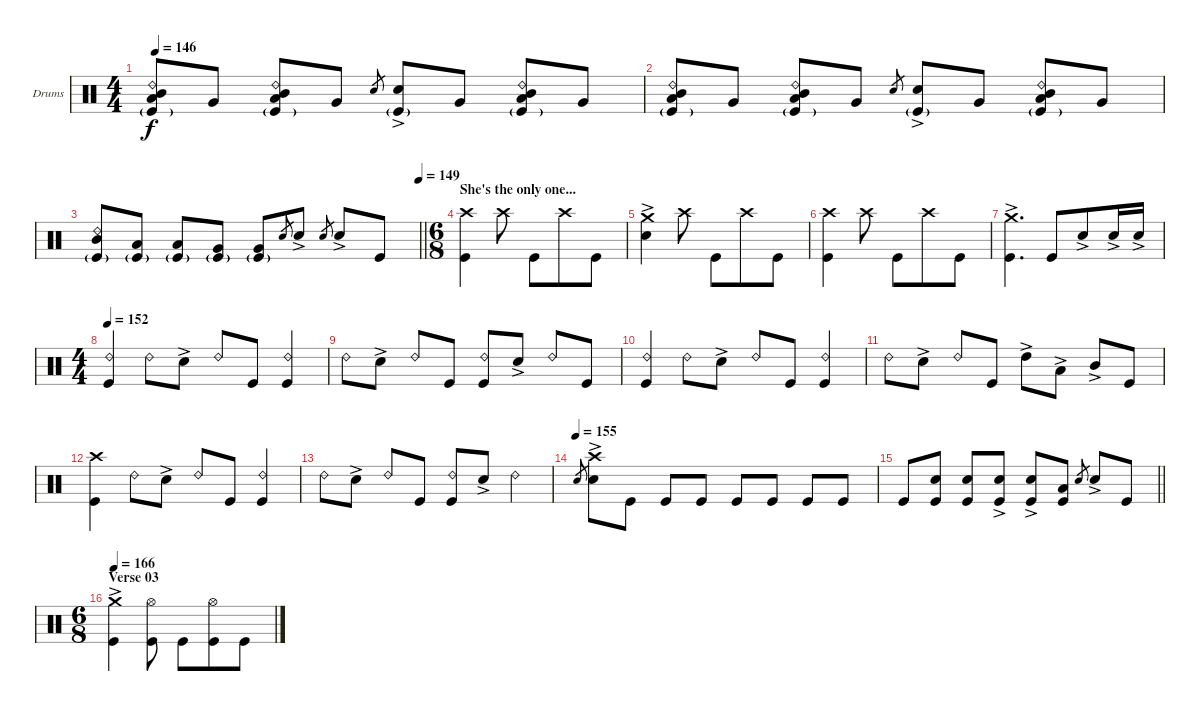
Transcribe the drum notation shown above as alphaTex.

\bracketExtendMode groupsimilarinstruments
\firstSystemTrackNameOrientation horizontal
\otherSystemsTrackNameOrientation horizontal
\track ("Drumkit" "Drums") {instrument percussion}
\staff {score}
\articulation defaults
\ts (4 4)
\tempo 146
\clef neutral
\scale
0.308571
\ks c
("Low Tom (hit)" "Mid Tom (hit)" "Ride (bell) 2" "Kick (hit)"{g}).8{dy f} "Very Low Tom (hit)".8 ("Low Tom (hit)" "Mid Tom (hit)" "Ride (bell) 2" "Kick (hit)"{g}).8 "Very Low Tom (hit)".8 "Snare (hit) 2".8{gr} ("Snare (hit) 2"{ac} "Kick (hit)"{g}).8 "Very Low Tom (hit)".8 ("Low Tom (hit)" "Mid Tom (hit)" "Ride (bell) 2" "Kick (hit)"{g}).8 "Very Low Tom (hit)".8 |
\scale
0.32 ("Low Tom (hit)" "Mid Tom (hit)" "Ride (bell) 2" "Kick (hit)"{g}).8 "Very Low Tom (hit)".8 ("Low Tom (hit)" "Mid Tom (hit)" "Ride (bell) 2" "Kick (hit)"{g}).8 "Very Low Tom (hit)".8 "Snare (hit) 2".8{gr} ("Snare (hit) 2"{ac} "Kick (hit)"{g}).8 "Very Low Tom (hit)".8 ("Low Tom (hit)" "Mid Tom (hit)" "Ride (bell) 2" "Kick (hit)"{g}).8 "Very Low Tom (hit)".8 |
\tempo (149 1)
\barLineRight lightlight
("Kick (hit)"{g} "Mid Tom (hit)" "Ride (bell) 2").8 ("Low Tom (hit)" "Kick (hit)"{g}).8 ("Low Tom (hit)" "Kick (hit)"{g}).8 ("Very Low Tom (hit)" "Kick (hit)"{g}).8 ("Very Low Tom (hit)" "Kick (hit)"{g}).8 "Snare (hit) 2".8{gr} "Snare (hit) 2"{ac}.8 "Snare (hit) 2".8{gr} "Snare (hit) 2"{ac}.8 "Kick (hit)".8 |
\ts (6 8)
\beaming (8 3 3)
\section ("" "She's the only one...")
("Crash high (hit)" "Kick (hit)").4 "Crash high (hit)".8 "Kick (hit)".8 "Crash high (hit)".8 "Kick (hit)".8 |
("Crash medium (hit)" "Snare (hit) 2"{ac}).4 "Crash high (hit)".8 "Kick (hit)".8 "Crash high (hit)".8 "Kick (hit)".8 |
("Crash high (hit)" "Kick (hit)").4 "Crash high (hit)".8 "Kick (hit)".8 "Crash high (hit)".8 "Kick (hit)".8 |
("Crash medium (hit)"{ac} "Kick (hit)").4{d} "Kick (hit)".8 "Snare (hit) 2"{ac}.8 "Snare (hit) 2"{ac}.16 "Snare (hit) 2"{ac}.16 |
\ts (4 4)
\beaming (8 2 2 2 2)
\tempo 152
("Kick (hit)" "Ride (bell) 2").4 "Ride (bell) 2".8 "Snare (hit) 2"{ac}.8 "Ride (bell) 2".8 "Kick (hit)".8 ("Ride (bell) 2" "Kick (hit)").4 |
"Ride (bell) 2".8 "Snare (hit) 2"{ac}.8 "Ride (bell) 2".8 "Kick (hit)".8 ("Ride (bell) 2" "Kick (hit)").8 "Snare (hit) 2"{ac}.8 "Ride (bell) 2".8 "Kick (hit)".8 |
("Ride (bell) 2" "Kick (hit)").4 "Ride (bell) 2".8 "Snare (hit) 2"{ac}.8 "Ride (bell) 2".8 "Kick (hit)".8 ("Ride (bell) 2" "Kick (hit)").4 |
"Ride (bell) 2".8 "Snare (hit) 2"{ac}.8 "Ride (bell) 2".8 "Kick (hit)".8 "High Tom (hit)"{ac}.8 "Low Tom (hit)"{ac}.8 "Mid Tom (hit)"{ac}.8 "Kick (hit)".8 |
("Crash high (hit)" "Kick (hit)").4 "Ride (bell) 2".8 "Snare (hit) 2"{ac}.8 "Ride (bell) 2".8 "Kick (hit)".8 ("Ride (bell) 2" "Kick (hit)").4 |
"Ride (bell) 2".8 "Snare (hit) 2"{ac}.8 "Ride (bell) 2".8 "Kick (hit)".8 ("Ride (bell) 2" "Kick (hit)").8 "Snare (hit) 2"{ac}.8 "Ride (bell) 2".4 |
\tempo (155)
"Snare (hit) 2".8{gr} ("Crash high (hit)" "Snare (hit) 2"{ac}).8 "Kick (hit)".8 "Kick (hit)".8 "Kick (hit)".8 "Kick (hit)".8 "Kick (hit)".8 "Kick (hit)".8 "Kick (hit)".8 |
\barLineRight lightlight "Kick (hit)".8
("Snare (hit) 2" "Kick (hit)").8 ("Snare (hit) 2" "Kick (hit)").8 ("Snare (hit) 2"{ac} "Kick (hit)").8 ("Snare (hit) 2"{ac} "Kick (hit)").8 ("Kick (hit)" "Low Tom (hit)").8 "Snare (hit) 2".8{gr} "Snare (hit) 2"{ac}.8 "Kick (hit)".8 |
\ts (6 8)
\beaming (8 3 3)
\section ("" "Verse 03")
\tempo 166
("Crash medium (hit)"{ac} "Kick (hit)").4 ("Kick (hit)" "Hi-Hat (open)").8 "Kick (hit)".8 ("Kick (hit)" "Hi-Hat (open)").8 "Kick (hit)".8
